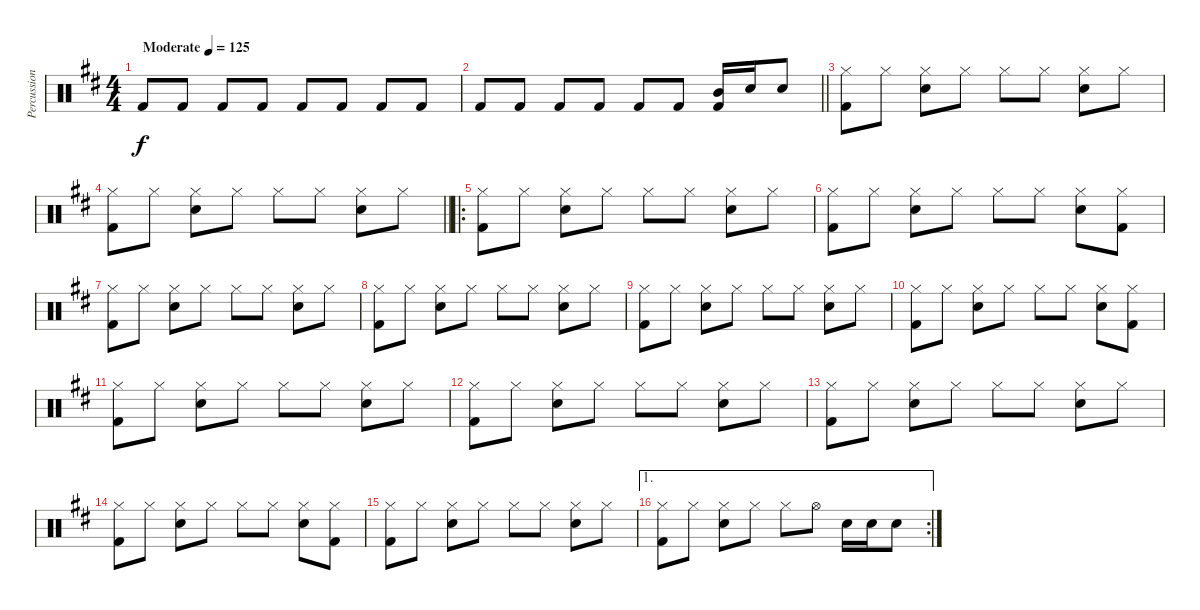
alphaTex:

\track ("Percussion" "Percussion") {instrument percussion}
\staff {score}
\articulation defaults
\ts (4 4)
\tempo (125 "Moderate")
\clef neutral
\ks d "Kick (hit) 2".8{dy f} "Kick (hit) 2".8 "Kick (hit) 2".8 "Kick (hit) 2".8 "Kick (hit) 2".8 "Kick (hit) 2".8 "Kick (hit) 2".8 "Kick (hit) 2".8
|
\barLineRight lightlight "Kick (hit) 2".8 "Kick (hit) 2".8 "Kick (hit) 2".8 "Kick (hit) 2".8 "Kick (hit) 2".8 "Kick (hit) 2".8
("Mid Tom (hit)" "Kick (hit) 2").16 "Snare (hit) 2".16 "Snare (hit) 2".8 |
("Hi-Hat (closed)" "Kick (hit) 2").8 "Hi-Hat (closed)".8 ("Hi-Hat (closed)" "Snare (hit) 2").8 "Hi-Hat (closed)".8 "Hi-Hat (closed)".8 "Hi-Hat (closed)".8 ("Hi-Hat (closed)" "Snare (hit) 2").8 "Hi-Hat (closed)".8 |
\barLineRight lightlight
("Hi-Hat (closed)" "Kick (hit) 2").8 "Hi-Hat (closed)".8 ("Hi-Hat (closed)" "Snare (hit) 2").8 "Hi-Hat (closed)".8 "Hi-Hat (closed)".8 "Hi-Hat (closed)".8 ("Hi-Hat (closed)" "Snare (hit) 2").8 "Hi-Hat (closed)".8 |
\ro
("Hi-Hat (closed)" "Kick (hit) 2").8 "Hi-Hat (closed)".8 ("Hi-Hat (closed)" "Snare (hit) 2").8 "Hi-Hat (closed)".8 "Hi-Hat (closed)".8 "Hi-Hat (closed)".8 ("Hi-Hat (closed)" "Snare (hit) 2").8 "Hi-Hat (closed)".8 |
("Hi-Hat (closed)" "Kick (hit) 2").8 "Hi-Hat (closed)".8 ("Hi-Hat (closed)" "Snare (hit) 2").8 "Hi-Hat (closed)".8 "Hi-Hat (closed)".8 "Hi-Hat (closed)".8 ("Hi-Hat (closed)" "Snare (hit) 2").8 ("Hi-Hat (closed)" "Kick (hit) 2").8 |
("Hi-Hat (closed)" "Kick (hit) 2").8 "Hi-Hat (closed)".8 ("Hi-Hat (closed)" "Snare (hit) 2").8 "Hi-Hat (closed)".8 "Hi-Hat (closed)".8 "Hi-Hat (closed)".8 ("Hi-Hat (closed)" "Snare (hit) 2").8 "Hi-Hat (closed)".8 |
("Hi-Hat (closed)" "Kick (hit) 2").8 "Hi-Hat (closed)".8 ("Hi-Hat (closed)" "Snare (hit) 2").8 "Hi-Hat (closed)".8 "Hi-Hat (closed)".8 "Hi-Hat (closed)".8 ("Hi-Hat (closed)" "Snare (hit) 2").8 "Hi-Hat (closed)".8 |
("Hi-Hat (closed)" "Kick (hit) 2").8 "Hi-Hat (closed)".8 ("Hi-Hat (closed)" "Snare (hit) 2").8 "Hi-Hat (closed)".8 "Hi-Hat (closed)".8 "Hi-Hat (closed)".8 ("Hi-Hat (closed)" "Snare (hit) 2").8 "Hi-Hat (closed)".8 |
("Hi-Hat (closed)" "Kick (hit) 2").8 "Hi-Hat (closed)".8 ("Hi-Hat (closed)" "Snare (hit) 2").8 "Hi-Hat (closed)".8 "Hi-Hat (closed)".8 "Hi-Hat (closed)".8 ("Hi-Hat (closed)" "Snare (hit) 2").8 ("Hi-Hat (closed)" "Kick (hit) 2").8 |
("Hi-Hat (closed)" "Kick (hit) 2").8 "Hi-Hat (closed)".8 ("Hi-Hat (closed)" "Snare (hit) 2").8 "Hi-Hat (closed)".8 "Hi-Hat (closed)".8 "Hi-Hat (closed)".8 ("Hi-Hat (closed)" "Snare (hit) 2").8 "Hi-Hat (closed)".8 |
("Hi-Hat (closed)" "Kick (hit) 2").8 "Hi-Hat (closed)".8 ("Hi-Hat (closed)" "Snare (hit) 2").8 "Hi-Hat (closed)".8 "Hi-Hat (closed)".8 "Hi-Hat (closed)".8 ("Hi-Hat (closed)" "Snare (hit) 2").8 "Hi-Hat (closed)".8 |
("Hi-Hat (closed)" "Kick (hit) 2").8 "Hi-Hat (closed)".8 ("Hi-Hat (closed)" "Snare (hit) 2").8 "Hi-Hat (closed)".8 "Hi-Hat (closed)".8 "Hi-Hat (closed)".8 ("Hi-Hat (closed)" "Snare (hit) 2").8 "Hi-Hat (closed)".8 |
("Hi-Hat (closed)" "Kick (hit) 2").8 "Hi-Hat (closed)".8 ("Hi-Hat (closed)" "Snare (hit) 2").8 "Hi-Hat (closed)".8 "Hi-Hat (closed)".8 "Hi-Hat (closed)".8 ("Hi-Hat (closed)" "Snare (hit) 2").8 ("Hi-Hat (closed)" "Kick (hit) 2").8 |
("Hi-Hat (closed)" "Kick (hit) 2").8 "Hi-Hat (closed)".8 ("Hi-Hat (closed)" "Snare (hit) 2").8 "Hi-Hat (closed)".8 "Hi-Hat (closed)".8 "Hi-Hat (closed)".8 ("Hi-Hat (closed)" "Snare (hit) 2").8 "Hi-Hat (closed)".8 |
\ae 1
\rc 2
("Hi-Hat (closed)" "Kick (hit) 2").8 "Hi-Hat (closed)".8 ("Hi-Hat (closed)" "Snare (hit) 2").8 "Hi-Hat (closed)".8 "Hi-Hat (closed)".8 "Hi-Hat (open)".8 "Snare (hit) 2".16 "Snare (hit) 2".16 "Snare (hit) 2".8
